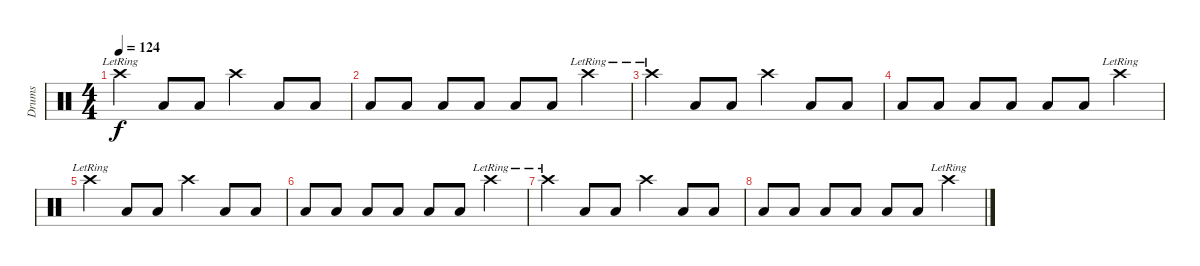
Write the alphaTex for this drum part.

\track ("Drums" "Drums") {instrument percussion}
\staff {score}
\articulation defaults
\ts (4 4)
\tempo 124
\clef neutral
\ks c "Crash high (hit)"{lr}.4{dy f} "Low Tom (hit)".8 "Low Tom (hit)".8 "Crash high (hit)".4 "Low Tom (hit)".8 "Low Tom (hit)".8
|
"Low Tom (hit)".8 "Low Tom (hit)".8 "Low Tom (hit)".8 "Low Tom (hit)".8 "Low Tom (hit)".8 "Low Tom (hit)".8 "Crash high (hit)"{lr}.4 |
"Crash high (hit)"{lr}.4 "Low Tom (hit)".8 "Low Tom (hit)".8 "Crash high (hit)".4 "Low Tom (hit)".8 "Low Tom (hit)".8 |
"Low Tom (hit)".8 "Low Tom (hit)".8 "Low Tom (hit)".8 "Low Tom (hit)".8 "Low Tom (hit)".8 "Low Tom (hit)".8 "Crash high (hit)"{lr}.4 |
"Crash high (hit)"{lr}.4 "Low Tom (hit)".8 "Low Tom (hit)".8 "Crash high (hit)".4 "Low Tom (hit)".8 "Low Tom (hit)".8 |
"Low Tom (hit)".8 "Low Tom (hit)".8 "Low Tom (hit)".8 "Low Tom (hit)".8 "Low Tom (hit)".8 "Low Tom (hit)".8 "Crash high (hit)"{lr}.4 |
"Crash high (hit)"{lr}.4 "Low Tom (hit)".8 "Low Tom (hit)".8 "Crash high (hit)".4 "Low Tom (hit)".8 "Low Tom (hit)".8 |
"Low Tom (hit)".8 "Low Tom (hit)".8 "Low Tom (hit)".8 "Low Tom (hit)".8 "Low Tom (hit)".8 "Low Tom (hit)".8 "Crash high (hit)"{lr}.4
